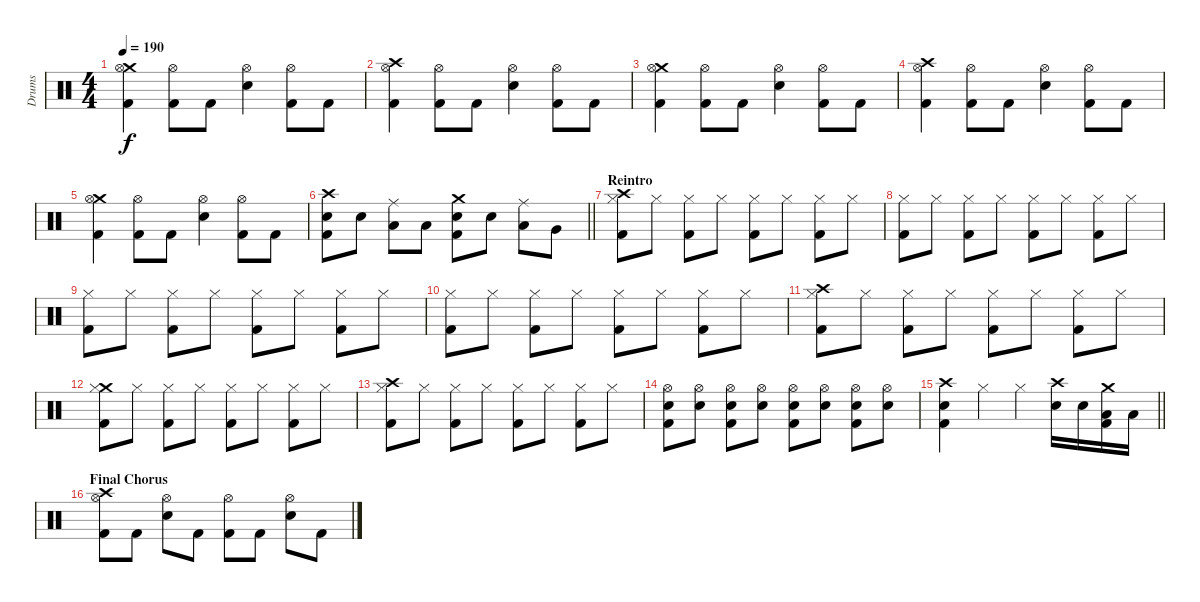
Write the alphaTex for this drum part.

\track ("Drums" "Drums") {instrument percussion}
\staff {score}
\articulation defaults
\ts (4 4)
\tempo 190
\clef neutral
\ks c
("Crash medium (hit)" "Hi-Hat (open)" "Kick (hit) 2").4{dy f} ("Hi-Hat (open)" "Kick (hit) 2").8 "Kick (hit) 2".8 ("Hi-Hat (open)" "Snare (hit) 2").4 ("Hi-Hat (open)" "Kick (hit) 2").8 "Kick (hit) 2".8 |
("Crash high (hit)" "Hi-Hat (open)" "Kick (hit) 2").4 ("Hi-Hat (open)" "Kick (hit) 2").8 "Kick (hit) 2".8 ("Hi-Hat (open)" "Snare (hit) 2").4 ("Hi-Hat (open)" "Kick (hit) 2").8 "Kick (hit) 2".8 |
("Crash medium (hit)" "Hi-Hat (open)" "Kick (hit) 2").4 ("Hi-Hat (open)" "Kick (hit) 2").8 "Kick (hit) 2".8 ("Hi-Hat (open)" "Snare (hit) 2").4 ("Hi-Hat (open)" "Kick (hit) 2").8 "Kick (hit) 2".8 |
("Crash high (hit)" "Hi-Hat (open)" "Kick (hit) 2").4 ("Hi-Hat (open)" "Kick (hit) 2").8 "Kick (hit) 2".8 ("Hi-Hat (open)" "Snare (hit) 2").4 ("Hi-Hat (open)" "Kick (hit) 2").8 "Kick (hit) 2".8 |
("Crash medium (hit)" "Hi-Hat (open)" "Kick (hit) 2").4 ("Hi-Hat (open)" "Kick (hit) 2").8 "Kick (hit) 2".8 ("Hi-Hat (open)" "Snare (hit) 2").4 ("Hi-Hat (open)" "Kick (hit) 2").8 "Kick (hit) 2".8 |
\barLineRight lightlight
("Crash high (hit)" "Snare (hit) 2" "Kick (hit) 2").8 "Snare (hit) 2".8 ("Ride (middle)" "Low Tom (hit)").8 "Low Tom (hit)".8 ("Crash medium (hit)" "Snare (hit) 2" "Kick (hit) 2").8 "Snare (hit) 2".8 ("Ride (middle)" "Low Tom (hit)").8 "Very Low Tom (hit)".8 |
\section ("" "Reintro")
("Crash high (hit)" "Hi-Hat (closed)" "Kick (hit) 2").8 "Hi-Hat (closed)".8 ("Hi-Hat (closed)" "Kick (hit) 2").8 "Hi-Hat (closed)".8 ("Hi-Hat (closed)" "Kick (hit) 2").8 "Hi-Hat (closed)".8 ("Hi-Hat (closed)" "Kick (hit) 2").8 "Hi-Hat (closed)".8 |
("Hi-Hat (closed)" "Kick (hit) 2").8 "Hi-Hat (closed)".8 ("Hi-Hat (closed)" "Kick (hit) 2").8 "Hi-Hat (closed)".8 ("Hi-Hat (closed)" "Kick (hit) 2").8 "Hi-Hat (closed)".8 ("Hi-Hat (closed)" "Kick (hit) 2").8 "Hi-Hat (closed)".8 |
("Hi-Hat (closed)" "Kick (hit) 2").8 "Hi-Hat (closed)".8 ("Hi-Hat (closed)" "Kick (hit) 2").8 "Hi-Hat (closed)".8 ("Hi-Hat (closed)" "Kick (hit) 2").8 "Hi-Hat (closed)".8 ("Hi-Hat (closed)" "Kick (hit) 2").8 "Hi-Hat (closed)".8 |
("Hi-Hat (closed)" "Kick (hit) 2").8 "Hi-Hat (closed)".8 ("Hi-Hat (closed)" "Kick (hit) 2").8 "Hi-Hat (closed)".8 ("Hi-Hat (closed)" "Kick (hit) 2").8 "Hi-Hat (closed)".8 ("Hi-Hat (closed)" "Kick (hit) 2").8 "Hi-Hat (closed)".8 |
("Crash high (hit)" "Hi-Hat (closed)" "Kick (hit) 2").8 "Hi-Hat (closed)".8 ("Hi-Hat (closed)" "Kick (hit) 2").8 "Hi-Hat (closed)".8 ("Hi-Hat (closed)" "Kick (hit) 2").8 "Hi-Hat (closed)".8 ("Hi-Hat (closed)" "Kick (hit) 2").8 "Hi-Hat (closed)".8 |
("Crash medium (hit)" "Hi-Hat (closed)" "Kick (hit) 2").8 "Hi-Hat (closed)".8 ("Hi-Hat (closed)" "Kick (hit) 2").8 "Hi-Hat (closed)".8 ("Hi-Hat (closed)" "Kick (hit) 2").8 "Hi-Hat (closed)".8 ("Hi-Hat (closed)" "Kick (hit) 2").8 "Hi-Hat (closed)".8 |
("Crash high (hit)" "Hi-Hat (closed)" "Kick (hit) 2").8 "Hi-Hat (closed)".8 ("Hi-Hat (closed)" "Kick (hit) 2").8 "Hi-Hat (closed)".8 ("Hi-Hat (closed)" "Kick (hit) 2").8 "Hi-Hat (closed)".8 ("Hi-Hat (closed)" "Kick (hit) 2").8 "Hi-Hat (closed)".8 |
("Hi-Hat (open)" "Snare (hit) 2" "Kick (hit) 2").8 ("Hi-Hat (open)" "Snare (hit) 2").8 ("Hi-Hat (open)" "Snare (hit) 2" "Kick (hit) 2").8 ("Hi-Hat (open)" "Snare (hit) 2").8 ("Hi-Hat (open)" "Snare (hit) 2" "Kick (hit) 2").8 ("Hi-Hat (open)" "Snare (hit) 2").8 ("Hi-Hat (open)" "Snare (hit) 2" "Kick (hit) 2").8 ("Hi-Hat (open)" "Snare (hit) 2").8 |
\barLineRight lightlight
("Crash high (hit)" "Snare (hit) 2" "Kick (hit) 2").4 "Hi-Hat (closed)".4 "Hi-Hat (closed)".4 ("Crash high (hit)" "Snare (hit) 2").16 "Snare (hit) 2".16 ("Crash medium (hit)" "Low Tom (hit)" "Kick (hit) 2").16 "Low Tom (hit)".16 |
\section ("" "Final Chorus")
("Crash high (hit)" "Hi-Hat (open)" "Kick (hit) 2").8 "Kick (hit) 2".8 ("Hi-Hat (open)" "Snare (hit) 2").8 "Kick (hit) 2".8 ("Hi-Hat (open)" "Kick (hit) 2").8 "Kick (hit) 2".8 ("Hi-Hat (open)" "Snare (hit) 2").8 "Kick (hit) 2".8
